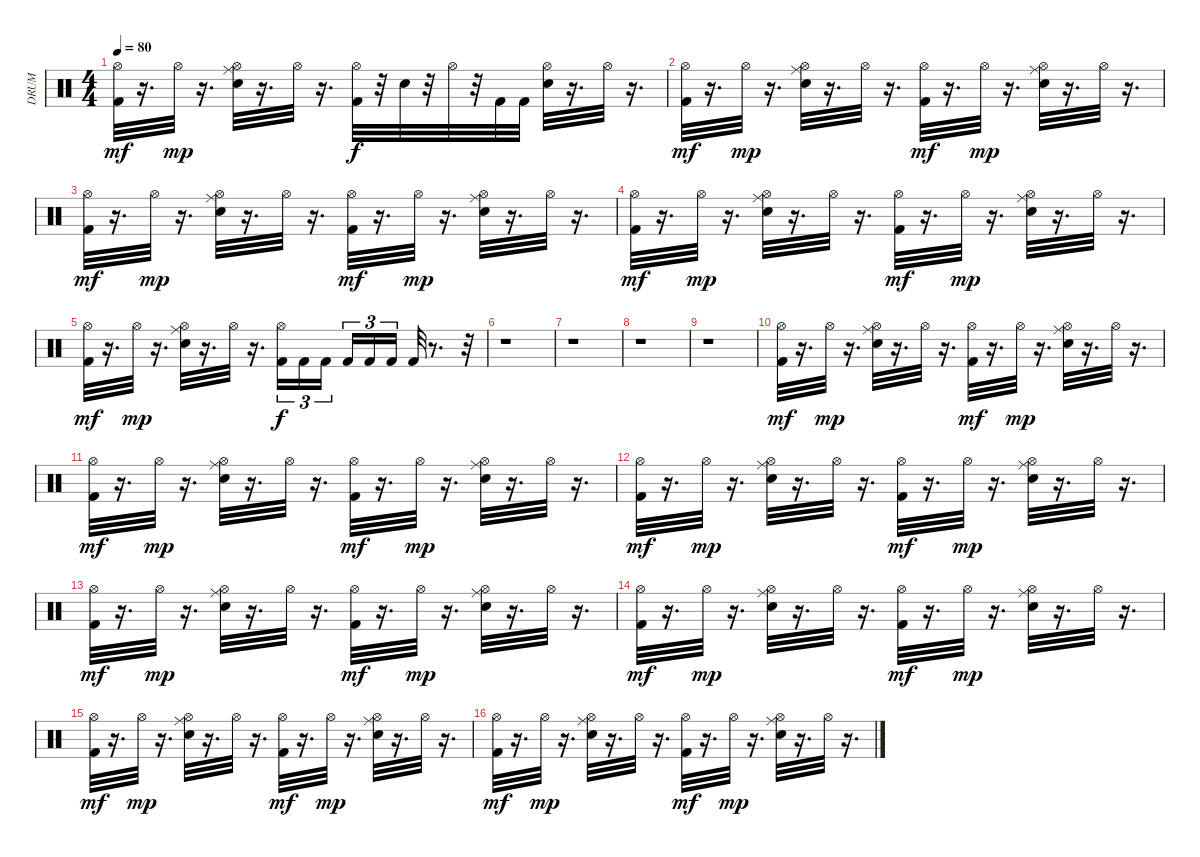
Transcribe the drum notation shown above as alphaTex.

\track ("DRUM" "DRUM") {instrument percussion}
\staff {score}
\articulation defaults
\ts (4 4)
\tempo 80
\clef neutral
\ks c
("Hi-Hat (open)" "Kick (hit) 2").32{dy mf} r.16{d} "Hi-Hat (open)".32{dy mp} r.16{d} ("Ride (middle)" "Hi-Hat (open)" "Electric Snare (hit)").32 r.16{d} "Hi-Hat (open)".32 r.16{d} ("Hi-Hat (open)" "Kick (hit) 2").32{dy f} r.32 "Electric Snare (hit)".32 r.32 "Hi-Hat (open)".32 r.32 "Kick (hit) 2".32 "Kick (hit) 2".32 ("Hi-Hat (open)" "Electric Snare (hit)").32 r.16{d} "Hi-Hat (open)".32 r.16{d} |
("Kick (hit) 2" "Hi-Hat (open)").32{dy mf} r.16{d} "Hi-Hat (open)".32{dy mp} r.16{d} ("Hi-Hat (open)" "Ride (middle)" "Electric Snare (hit)").32 r.16{d} "Hi-Hat (open)".32 r.16{d} ("Kick (hit) 2" "Hi-Hat (open)").32{dy mf} r.16{d} "Hi-Hat (open)".32{dy mp} r.16{d} ("Hi-Hat (open)" "Electric Snare (hit)" "Ride (middle)").32 r.16{d} "Hi-Hat (open)".32 r.16{d} |
("Hi-Hat (open)" "Kick (hit) 2").32{dy mf} r.16{d} "Hi-Hat (open)".32{dy mp} r.16{d} ("Ride (middle)" "Hi-Hat (open)" "Electric Snare (hit)").32 r.16{d} "Hi-Hat (open)".32 r.16{d} ("Hi-Hat (open)" "Kick (hit) 2").32{dy mf} r.16{d} "Hi-Hat (open)".32{dy mp} r.16{d} ("Electric Snare (hit)" "Ride (middle)" "Hi-Hat (open)").32 r.16{d} "Hi-Hat (open)".32 r.16{d} |
("Hi-Hat (open)" "Kick (hit) 2").32{dy mf} r.16{d} "Hi-Hat (open)".32{dy mp} r.16{d} ("Ride (middle)" "Hi-Hat (open)" "Electric Snare (hit)").32 r.16{d} "Hi-Hat (open)".32 r.16{d} ("Hi-Hat (open)" "Kick (hit) 2").32{dy mf} r.16{d} "Hi-Hat (open)".32{dy mp} r.16{d} ("Electric Snare (hit)" "Ride (middle)" "Hi-Hat (open)").32 r.16{d} "Hi-Hat (open)".32 r.16{d} |
("Hi-Hat (open)" "Kick (hit) 2").32{dy mf} r.16{d} "Hi-Hat (open)".32{dy mp} r.16{d} ("Ride (middle)" "Hi-Hat (open)" "Electric Snare (hit)").32 r.16{d} "Hi-Hat (open)".32 r.16{d} ("Hi-Hat (open)" "Kick (hit) 2").16{tu (3 2) dy f} "Kick (hit) 2".16{tu (3 2)} "Kick (hit) 2".16{tu (3 2)} "Kick (hit) 2".16{tu (3 2)} "Kick (hit) 2".16{tu (3 2)} "Kick (hit) 2".16{tu (3 2)} "Kick (hit) 2".32 r.8{d} r.32 |
r.1 |
r.1 |
r.1 |
r.1 |
("Hi-Hat (open)" "Kick (hit) 2").32{dy mf} r.16{d} "Hi-Hat (open)".32{dy mp} r.16{d} ("Ride (middle)" "Hi-Hat (open)" "Electric Snare (hit)").32 r.16{d} "Hi-Hat (open)".32 r.16{d} ("Hi-Hat (open)" "Kick (hit) 2").32{dy mf} r.16{d} "Hi-Hat (open)".32{dy mp} r.16{d} ("Electric Snare (hit)" "Ride (middle)" "Hi-Hat (open)").32 r.16{d} "Hi-Hat (open)".32 r.16{d} |
("Hi-Hat (open)" "Kick (hit) 2").32{dy mf} r.16{d} "Hi-Hat (open)".32{dy mp} r.16{d} ("Ride (middle)" "Hi-Hat (open)" "Electric Snare (hit)").32 r.16{d} "Hi-Hat (open)".32 r.16{d} ("Hi-Hat (open)" "Kick (hit) 2").32{dy mf} r.16{d} "Hi-Hat (open)".32{dy mp} r.16{d} ("Electric Snare (hit)" "Ride (middle)" "Hi-Hat (open)").32 r.16{d} "Hi-Hat (open)".32 r.16{d} |
("Hi-Hat (open)" "Kick (hit) 2").32{dy mf} r.16{d} "Hi-Hat (open)".32{dy mp} r.16{d} ("Ride (middle)" "Hi-Hat (open)" "Electric Snare (hit)").32 r.16{d} "Hi-Hat (open)".32 r.16{d} ("Hi-Hat (open)" "Kick (hit) 2").32{dy mf} r.16{d} "Hi-Hat (open)".32{dy mp} r.16{d} ("Electric Snare (hit)" "Ride (middle)" "Hi-Hat (open)").32 r.16{d} "Hi-Hat (open)".32 r.16{d} |
("Hi-Hat (open)" "Kick (hit) 2").32{dy mf} r.16{d} "Hi-Hat (open)".32{dy mp} r.16{d} ("Ride (middle)" "Hi-Hat (open)" "Electric Snare (hit)").32 r.16{d} "Hi-Hat (open)".32 r.16{d} ("Hi-Hat (open)" "Kick (hit) 2").32{dy mf} r.16{d} "Hi-Hat (open)".32{dy mp} r.16{d} ("Electric Snare (hit)" "Ride (middle)" "Hi-Hat (open)").32 r.16{d} "Hi-Hat (open)".32 r.16{d} |
("Hi-Hat (open)" "Kick (hit) 2").32{dy mf} r.16{d} "Hi-Hat (open)".32{dy mp} r.16{d} ("Ride (middle)" "Hi-Hat (open)" "Electric Snare (hit)").32 r.16{d} "Hi-Hat (open)".32 r.16{d} ("Hi-Hat (open)" "Kick (hit) 2").32{dy mf} r.16{d} "Hi-Hat (open)".32{dy mp} r.16{d} ("Electric Snare (hit)" "Ride (middle)" "Hi-Hat (open)").32 r.16{d} "Hi-Hat (open)".32 r.16{d} |
("Hi-Hat (open)" "Kick (hit) 2").32{dy mf} r.16{d} "Hi-Hat (open)".32{dy mp} r.16{d} ("Ride (middle)" "Hi-Hat (open)" "Electric Snare (hit)").32 r.16{d} "Hi-Hat (open)".32 r.16{d} ("Hi-Hat (open)" "Kick (hit) 2").32{dy mf} r.16{d} "Hi-Hat (open)".32{dy mp} r.16{d} ("Electric Snare (hit)" "Ride (middle)" "Hi-Hat (open)").32 r.16{d} "Hi-Hat (open)".32 r.16{d} |
("Hi-Hat (open)" "Kick (hit) 2").32{dy mf} r.16{d} "Hi-Hat (open)".32{dy mp} r.16{d} ("Ride (middle)" "Hi-Hat (open)" "Electric Snare (hit)").32 r.16{d} "Hi-Hat (open)".32 r.16{d} ("Hi-Hat (open)" "Kick (hit) 2").32{dy mf} r.16{d} "Hi-Hat (open)".32{dy mp} r.16{d} ("Electric Snare (hit)" "Ride (middle)" "Hi-Hat (open)").32 r.16{d} "Hi-Hat (open)".32 r.16{d}
